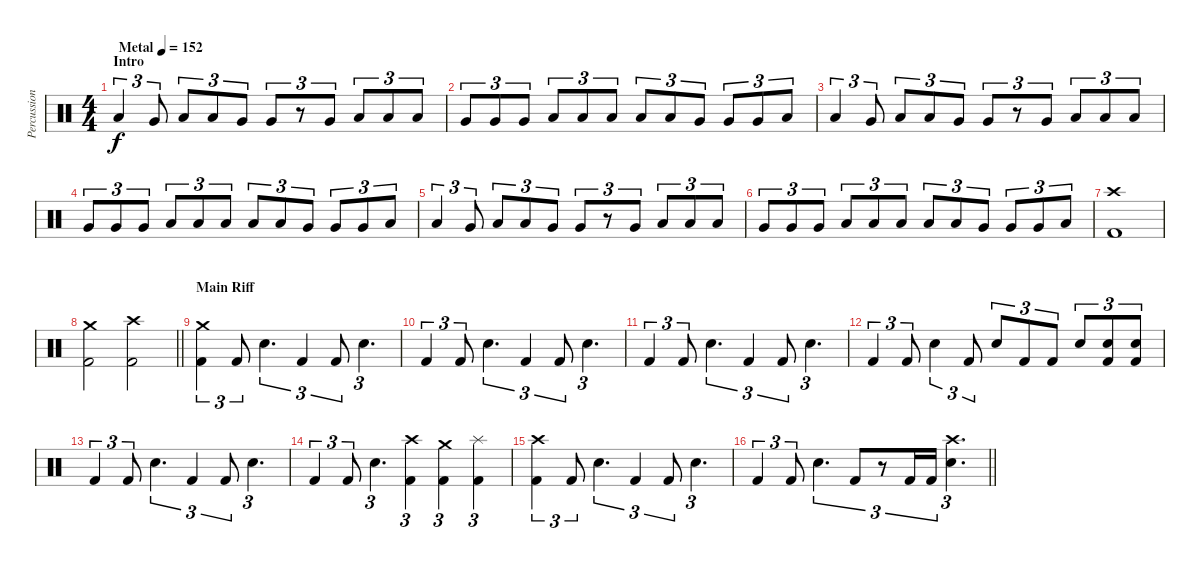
\track ("Percussion" "Percussion") {instrument percussion}
\staff {score}
\articulation defaults
\ts (4 4)
\section ("" "Intro")
\tempo (152 "Metal")
\clef neutral
\ks c "Low Tom (hit)".4{tu (3 2) dy f} "Very Low Tom (hit)".8{tu (3 2)} "Low Tom (hit)".8{tu (3 2)} "Low Tom (hit)".8{tu (3 2)} "Very Low Tom (hit)".8{tu (3 2)} "Very Low Tom (hit)".8{tu (3 2)}
r.8{tu (3 2)} "Very Low Tom (hit)".8{tu (3 2)} "Low Floor Tom (hit)".8{tu (3 2)} "Low Floor Tom (hit)".8{tu (3 2)} "Low Floor Tom (hit)".8{tu (3 2)} |
"Very Low Tom (hit)".8{tu (3 2)} "Very Low Tom (hit)".8{tu (3 2)} "Very Low Tom (hit)".8{tu (3 2)} "Low Floor Tom (hit)".8{tu (3 2)} "Low Floor Tom (hit)".8{tu (3 2)} "Low Floor Tom (hit)".8{tu (3 2)} "Low Tom (hit)".8{tu (3 2)} "Low Tom (hit)".8{tu (3 2)} "Very Low Tom (hit)".8{tu (3 2)} "Very Low Tom (hit)".8{tu (3 2)} "Very Low Tom (hit)".8{tu (3 2)} "Low Tom (hit)".8{tu (3 2)} |
"Low Tom (hit)".4{tu (3 2)} "Very Low Tom (hit)".8{tu (3 2)} "Low Tom (hit)".8{tu (3 2)} "Low Tom (hit)".8{tu (3 2)} "Very Low Tom (hit)".8{tu (3 2)} "Very Low Tom (hit)".8{tu (3 2)} r.8{tu (3 2)} "Very Low Tom (hit)".8{tu (3 2)} "Low Floor Tom (hit)".8{tu (3 2)} "Low Floor Tom (hit)".8{tu (3 2)} "Low Floor Tom (hit)".8{tu (3 2)} |
"Very Low Tom (hit)".8{tu (3 2)} "Very Low Tom (hit)".8{tu (3 2)} "Very Low Tom (hit)".8{tu (3 2)} "Low Floor Tom (hit)".8{tu (3 2)} "Low Floor Tom (hit)".8{tu (3 2)} "Low Floor Tom (hit)".8{tu (3 2)} "Low Tom (hit)".8{tu (3 2)} "Low Tom (hit)".8{tu (3 2)} "Very Low Tom (hit)".8{tu (3 2)} "Very Low Tom (hit)".8{tu (3 2)} "Very Low Tom (hit)".8{tu (3 2)} "Low Tom (hit)".8{tu (3 2)} |
"Low Tom (hit)".4{tu (3 2)} "Very Low Tom (hit)".8{tu (3 2)} "Low Tom (hit)".8{tu (3 2)} "Low Tom (hit)".8{tu (3 2)} "Very Low Tom (hit)".8{tu (3 2)} "Very Low Tom (hit)".8{tu (3 2)} r.8{tu (3 2)} "Very Low Tom (hit)".8{tu (3 2)} "Low Floor Tom (hit)".8{tu (3 2)} "Low Floor Tom (hit)".8{tu (3 2)} "Low Floor Tom (hit)".8{tu (3 2)} |
"Very Low Tom (hit)".8{tu (3 2)} "Very Low Tom (hit)".8{tu (3 2)} "Very Low Tom (hit)".8{tu (3 2)} "Low Floor Tom (hit)".8{tu (3 2)} "Low Floor Tom (hit)".8{tu (3 2)} "Low Floor Tom (hit)".8{tu (3 2)} "Low Tom (hit)".8{tu (3 2)} "Low Tom (hit)".8{tu (3 2)} "Very Low Tom (hit)".8{tu (3 2)} "Very Low Tom (hit)".8{tu (3 2)} "Very Low Tom (hit)".8{tu (3 2)} "Low Tom (hit)".8{tu (3 2)} |
("Kick (hit) 2" "Crash high (hit)").1 |
\barLineRight lightlight
("Kick (hit) 2" "Crash medium (hit)").2 ("Kick (hit) 2" "Crash high (hit)").2 |
\section ("" "Main Riff")
("Kick (hit) 2" "Crash medium (hit)").4{tu (3 2)} "Kick (hit) 2".8{tu (3 2)} "Electric Snare (hit)".4{d tu (3 2)} "Kick (hit) 2".4{tu (3 2)} "Kick (hit) 2".8{tu (3 2)} "Electric Snare (hit)".4{d tu (3 2)} |
"Kick (hit) 2".4{tu (3 2)} "Kick (hit) 2".8{tu (3 2)} "Electric Snare (hit)".4{d tu (3 2)} "Kick (hit) 2".4{tu (3 2)} "Kick (hit) 2".8{tu (3 2)} "Electric Snare (hit)".4{d tu (3 2)} |
"Kick (hit) 2".4{tu (3 2)} "Kick (hit) 2".8{tu (3 2)} "Electric Snare (hit)".4{d tu (3 2)} "Kick (hit) 2".4{tu (3 2)} "Kick (hit) 2".8{tu (3 2)} "Electric Snare (hit)".4{d tu (3 2)} |
"Kick (hit) 2".4{tu (3 2)} "Kick (hit) 2".8{tu (3 2)} "Electric Snare (hit)".4{tu (3 2)} "Kick (hit) 2".8{tu (3 2)} "Electric Snare (hit)".8{tu (3 2)} "Kick (hit) 2".8{tu (3 2)} "Kick (hit) 2".8{tu (3 2)} "Electric Snare (hit)".8{tu (3 2)} ("Kick (hit) 2" "Electric Snare (hit)").8{tu (3 2)} ("Kick (hit) 2" "Electric Snare (hit)").8{tu (3 2)} |
"Kick (hit) 2".4{tu (3 2)} "Kick (hit) 2".8{tu (3 2)} "Electric Snare (hit)".4{d tu (3 2)} "Kick (hit) 2".4{tu (3 2)} "Kick (hit) 2".8{tu (3 2)} "Electric Snare (hit)".4{d tu (3 2)} |
"Kick (hit) 2".4{tu (3 2)} "Kick (hit) 2".8{tu (3 2)} "Electric Snare (hit)".4{d tu (3 2)} ("Kick (hit) 2" "Crash high (hit)").4{tu (3 2)} ("Kick (hit) 2" "Crash medium (hit)").4{tu (3 2)} ("Kick (hit) 2" "Splash (hit)").4{tu (3 2)} |
("Kick (hit) 2" "Crash high (hit)").4{tu (3 2)} "Kick (hit) 2".8{tu (3 2)} "Electric Snare (hit)".4{d tu (3 2)} "Kick (hit) 2".4{tu (3 2)} "Kick (hit) 2".8{tu (3 2)} "Electric Snare (hit)".4{d tu (3 2)} |
\barLineRight lightlight "Kick (hit) 2".4{tu (3 2)} "Kick (hit) 2".8{tu (3 2)} "Electric Snare (hit)".4{d tu (3 2)} "Kick (hit) 2".8{tu (3 2)}
r.8{tu (3 2)} "Kick (hit) 2".16{tu (3 2)} "Kick (hit) 2".16{tu (3 2)} ("Electric Snare (hit)" "Crash high (hit)").4{d tu (3 2)}
